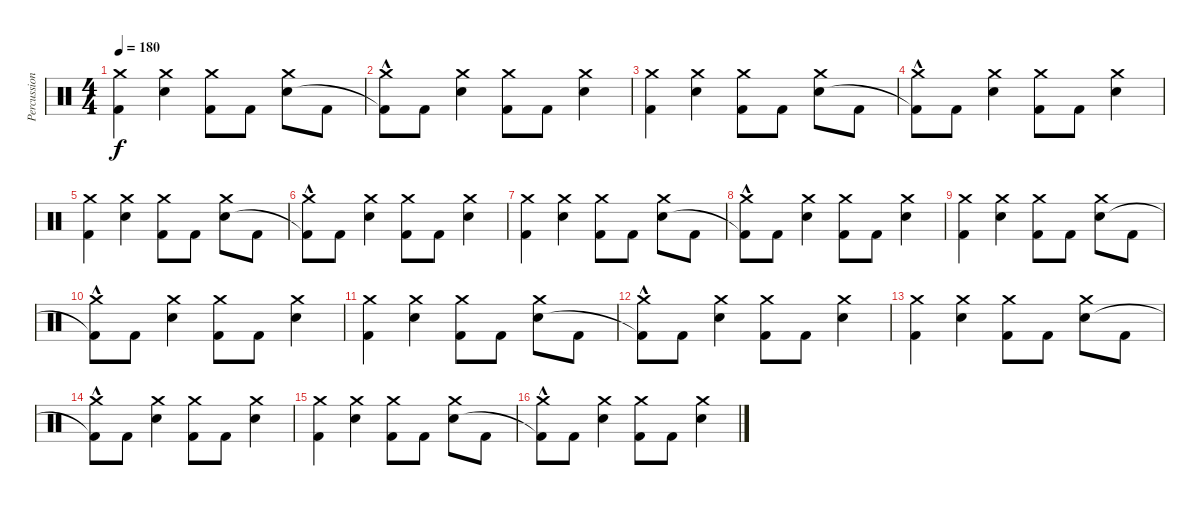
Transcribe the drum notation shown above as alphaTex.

\track ("Percussion" "Percussion") {instrument percussion}
\staff {score}
\articulation defaults
\ts (4 4)
\tempo 180
\clef neutral
\ks c
("Crash medium (hit)" "Kick (hit) 2").4{dy f} ("Crash medium (hit)" "Electric Snare (hit)").4 ("Crash medium (hit)" "Kick (hit) 2").8 "Kick (hit) 2".8 ("Crash medium (hit)" "Electric Snare (hit)").8 "Kick (hit) 2".8 |
("Crash medium (hit)" "Kick (hit) 2"{hac t}).8 "Kick (hit) 2".8 ("Crash medium (hit)" "Electric Snare (hit)").4 ("Crash medium (hit)" "Kick (hit) 2").8 "Kick (hit) 2".8 ("Crash medium (hit)" "Electric Snare (hit)").4 |
("Crash medium (hit)" "Kick (hit) 2").4 ("Crash medium (hit)" "Electric Snare (hit)").4 ("Crash medium (hit)" "Kick (hit) 2").8 "Kick (hit) 2".8 ("Crash medium (hit)" "Electric Snare (hit)").8 "Kick (hit) 2".8 |
("Crash medium (hit)" "Kick (hit) 2"{hac t}).8 "Kick (hit) 2".8 ("Crash medium (hit)" "Electric Snare (hit)").4 ("Crash medium (hit)" "Kick (hit) 2").8 "Kick (hit) 2".8 ("Crash medium (hit)" "Electric Snare (hit)").4 |
("Crash medium (hit)" "Kick (hit) 2").4 ("Crash medium (hit)" "Electric Snare (hit)").4 ("Crash medium (hit)" "Kick (hit) 2").8 "Kick (hit) 2".8 ("Crash medium (hit)" "Electric Snare (hit)").8 "Kick (hit) 2".8 |
("Crash medium (hit)" "Kick (hit) 2"{hac t}).8 "Kick (hit) 2".8 ("Crash medium (hit)" "Electric Snare (hit)").4 ("Crash medium (hit)" "Kick (hit) 2").8 "Kick (hit) 2".8 ("Crash medium (hit)" "Electric Snare (hit)").4 |
("Crash medium (hit)" "Kick (hit) 2").4 ("Crash medium (hit)" "Electric Snare (hit)").4 ("Crash medium (hit)" "Kick (hit) 2").8 "Kick (hit) 2".8 ("Crash medium (hit)" "Electric Snare (hit)").8 "Kick (hit) 2".8 |
("Crash medium (hit)" "Kick (hit) 2"{hac t}).8 "Kick (hit) 2".8 ("Crash medium (hit)" "Electric Snare (hit)").4 ("Crash medium (hit)" "Kick (hit) 2").8 "Kick (hit) 2".8 ("Crash medium (hit)" "Electric Snare (hit)").4 |
("Crash medium (hit)" "Kick (hit) 2").4 ("Crash medium (hit)" "Electric Snare (hit)").4 ("Crash medium (hit)" "Kick (hit) 2").8 "Kick (hit) 2".8 ("Crash medium (hit)" "Electric Snare (hit)").8 "Kick (hit) 2".8 |
("Crash medium (hit)" "Kick (hit) 2"{hac t}).8 "Kick (hit) 2".8 ("Crash medium (hit)" "Electric Snare (hit)").4 ("Crash medium (hit)" "Kick (hit) 2").8 "Kick (hit) 2".8 ("Crash medium (hit)" "Electric Snare (hit)").4 |
("Crash medium (hit)" "Kick (hit) 2").4 ("Crash medium (hit)" "Electric Snare (hit)").4 ("Crash medium (hit)" "Kick (hit) 2").8 "Kick (hit) 2".8 ("Crash medium (hit)" "Electric Snare (hit)").8 "Kick (hit) 2".8 |
("Crash medium (hit)" "Kick (hit) 2"{hac t}).8 "Kick (hit) 2".8 ("Crash medium (hit)" "Electric Snare (hit)").4 ("Crash medium (hit)" "Kick (hit) 2").8 "Kick (hit) 2".8 ("Crash medium (hit)" "Electric Snare (hit)").4 |
("Crash medium (hit)" "Kick (hit) 2").4 ("Crash medium (hit)" "Electric Snare (hit)").4 ("Crash medium (hit)" "Kick (hit) 2").8 "Kick (hit) 2".8 ("Crash medium (hit)" "Electric Snare (hit)").8 "Kick (hit) 2".8 |
("Crash medium (hit)" "Kick (hit) 2"{hac t}).8 "Kick (hit) 2".8 ("Crash medium (hit)" "Electric Snare (hit)").4 ("Crash medium (hit)" "Kick (hit) 2").8 "Kick (hit) 2".8 ("Crash medium (hit)" "Electric Snare (hit)").4 |
("Crash medium (hit)" "Kick (hit) 2").4 ("Crash medium (hit)" "Electric Snare (hit)").4 ("Crash medium (hit)" "Kick (hit) 2").8 "Kick (hit) 2".8 ("Crash medium (hit)" "Electric Snare (hit)").8 "Kick (hit) 2".8 |
("Crash medium (hit)" "Kick (hit) 2"{hac t}).8 "Kick (hit) 2".8 ("Crash medium (hit)" "Electric Snare (hit)").4 ("Crash medium (hit)" "Kick (hit) 2").8 "Kick (hit) 2".8 ("Crash medium (hit)" "Electric Snare (hit)").4
